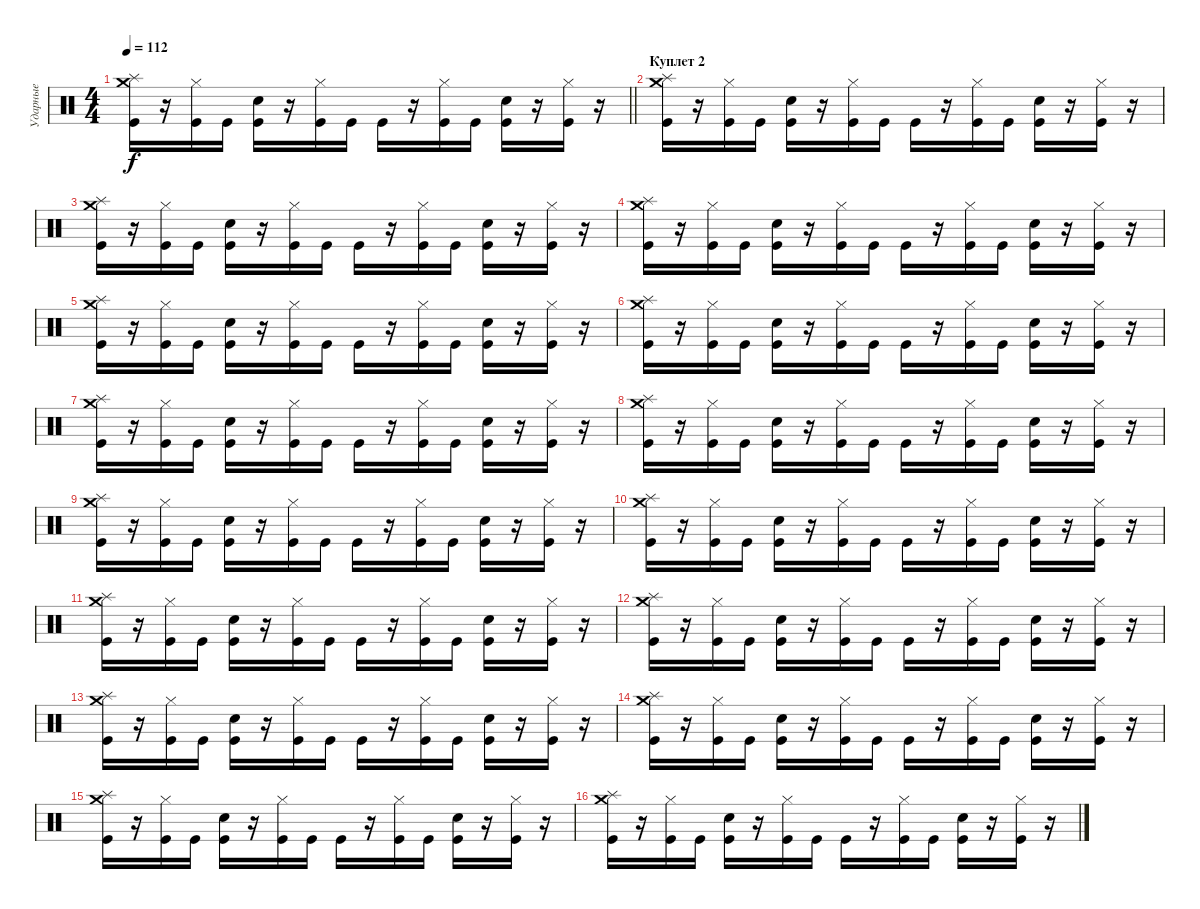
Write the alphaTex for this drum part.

\track ("Ударные" "Ударные") {instrument percussion}
\staff {score}
\articulation defaults
\ts (4 4)
\tempo 112
\clef neutral
\barLineRight lightlight
\ks c
("Splash (hit)" "Crash medium (hit)" "Kick (hit)").16{dy f} r.16 ("Hi-Hat (closed)" "Kick (hit)").16 "Kick (hit)".16 ("Snare (hit) 2" "Kick (hit)").16 r.16 ("Hi-Hat (closed)" "Kick (hit)").16 "Kick (hit)".16 "Kick (hit)".16 r.16 ("Hi-Hat (closed)" "Kick (hit)").16 "Kick (hit)".16 ("Snare (hit) 2" "Kick (hit)").16 r.16 ("Hi-Hat (closed)" "Kick (hit)").16 r.16 |
\section ("" "Куплет 2")
("Splash (hit)" "Crash medium (hit)" "Kick (hit)").16 r.16 ("Hi-Hat (closed)" "Kick (hit)").16 "Kick (hit)".16 ("Snare (hit) 2" "Kick (hit)").16 r.16 ("Hi-Hat (closed)" "Kick (hit)").16 "Kick (hit)".16 "Kick (hit)".16 r.16 ("Hi-Hat (closed)" "Kick (hit)").16 "Kick (hit)".16 ("Snare (hit) 2" "Kick (hit)").16 r.16 ("Hi-Hat (closed)" "Kick (hit)").16 r.16 |
("Splash (hit)" "Crash medium (hit)" "Kick (hit)").16 r.16 ("Hi-Hat (closed)" "Kick (hit)").16 "Kick (hit)".16 ("Snare (hit) 2" "Kick (hit)").16 r.16 ("Hi-Hat (closed)" "Kick (hit)").16 "Kick (hit)".16 "Kick (hit)".16 r.16 ("Hi-Hat (closed)" "Kick (hit)").16 "Kick (hit)".16 ("Snare (hit) 2" "Kick (hit)").16 r.16 ("Hi-Hat (closed)" "Kick (hit)").16 r.16 |
("Splash (hit)" "Crash medium (hit)" "Kick (hit)").16 r.16 ("Hi-Hat (closed)" "Kick (hit)").16 "Kick (hit)".16 ("Snare (hit) 2" "Kick (hit)").16 r.16 ("Hi-Hat (closed)" "Kick (hit)").16 "Kick (hit)".16 "Kick (hit)".16 r.16 ("Hi-Hat (closed)" "Kick (hit)").16 "Kick (hit)".16 ("Snare (hit) 2" "Kick (hit)").16 r.16 ("Hi-Hat (closed)" "Kick (hit)").16 r.16 |
("Splash (hit)" "Crash medium (hit)" "Kick (hit)").16 r.16 ("Hi-Hat (closed)" "Kick (hit)").16 "Kick (hit)".16 ("Snare (hit) 2" "Kick (hit)").16 r.16 ("Hi-Hat (closed)" "Kick (hit)").16 "Kick (hit)".16 "Kick (hit)".16 r.16 ("Hi-Hat (closed)" "Kick (hit)").16 "Kick (hit)".16 ("Snare (hit) 2" "Kick (hit)").16 r.16 ("Hi-Hat (closed)" "Kick (hit)").16 r.16 |
("Splash (hit)" "Crash medium (hit)" "Kick (hit)").16 r.16 ("Hi-Hat (closed)" "Kick (hit)").16 "Kick (hit)".16 ("Snare (hit) 2" "Kick (hit)").16 r.16 ("Hi-Hat (closed)" "Kick (hit)").16 "Kick (hit)".16 "Kick (hit)".16 r.16 ("Hi-Hat (closed)" "Kick (hit)").16 "Kick (hit)".16 ("Snare (hit) 2" "Kick (hit)").16 r.16 ("Hi-Hat (closed)" "Kick (hit)").16 r.16 |
("Splash (hit)" "Crash medium (hit)" "Kick (hit)").16 r.16 ("Hi-Hat (closed)" "Kick (hit)").16 "Kick (hit)".16 ("Snare (hit) 2" "Kick (hit)").16 r.16 ("Hi-Hat (closed)" "Kick (hit)").16 "Kick (hit)".16 "Kick (hit)".16 r.16 ("Hi-Hat (closed)" "Kick (hit)").16 "Kick (hit)".16 ("Snare (hit) 2" "Kick (hit)").16 r.16 ("Hi-Hat (closed)" "Kick (hit)").16 r.16 |
("Splash (hit)" "Crash medium (hit)" "Kick (hit)").16 r.16 ("Hi-Hat (closed)" "Kick (hit)").16 "Kick (hit)".16 ("Snare (hit) 2" "Kick (hit)").16 r.16 ("Hi-Hat (closed)" "Kick (hit)").16 "Kick (hit)".16 "Kick (hit)".16 r.16 ("Hi-Hat (closed)" "Kick (hit)").16 "Kick (hit)".16 ("Snare (hit) 2" "Kick (hit)").16 r.16 ("Hi-Hat (closed)" "Kick (hit)").16 r.16 |
("Splash (hit)" "Crash medium (hit)" "Kick (hit)").16 r.16 ("Hi-Hat (closed)" "Kick (hit)").16 "Kick (hit)".16 ("Snare (hit) 2" "Kick (hit)").16 r.16 ("Hi-Hat (closed)" "Kick (hit)").16 "Kick (hit)".16 "Kick (hit)".16 r.16 ("Hi-Hat (closed)" "Kick (hit)").16 "Kick (hit)".16 ("Snare (hit) 2" "Kick (hit)").16 r.16 ("Hi-Hat (closed)" "Kick (hit)").16 r.16 |
("Splash (hit)" "Crash medium (hit)" "Kick (hit)").16 r.16 ("Hi-Hat (closed)" "Kick (hit)").16 "Kick (hit)".16 ("Snare (hit) 2" "Kick (hit)").16 r.16 ("Hi-Hat (closed)" "Kick (hit)").16 "Kick (hit)".16 "Kick (hit)".16 r.16 ("Hi-Hat (closed)" "Kick (hit)").16 "Kick (hit)".16 ("Snare (hit) 2" "Kick (hit)").16 r.16 ("Hi-Hat (closed)" "Kick (hit)").16 r.16 |
("Splash (hit)" "Crash medium (hit)" "Kick (hit)").16 r.16 ("Hi-Hat (closed)" "Kick (hit)").16 "Kick (hit)".16 ("Snare (hit) 2" "Kick (hit)").16 r.16 ("Hi-Hat (closed)" "Kick (hit)").16 "Kick (hit)".16 "Kick (hit)".16 r.16 ("Hi-Hat (closed)" "Kick (hit)").16 "Kick (hit)".16 ("Snare (hit) 2" "Kick (hit)").16 r.16 ("Hi-Hat (closed)" "Kick (hit)").16 r.16 |
("Splash (hit)" "Crash medium (hit)" "Kick (hit)").16 r.16 ("Hi-Hat (closed)" "Kick (hit)").16 "Kick (hit)".16 ("Snare (hit) 2" "Kick (hit)").16 r.16 ("Hi-Hat (closed)" "Kick (hit)").16 "Kick (hit)".16 "Kick (hit)".16 r.16 ("Hi-Hat (closed)" "Kick (hit)").16 "Kick (hit)".16 ("Snare (hit) 2" "Kick (hit)").16 r.16 ("Hi-Hat (closed)" "Kick (hit)").16 r.16 |
("Splash (hit)" "Crash medium (hit)" "Kick (hit)").16 r.16 ("Hi-Hat (closed)" "Kick (hit)").16 "Kick (hit)".16 ("Snare (hit) 2" "Kick (hit)").16 r.16 ("Hi-Hat (closed)" "Kick (hit)").16 "Kick (hit)".16 "Kick (hit)".16 r.16 ("Hi-Hat (closed)" "Kick (hit)").16 "Kick (hit)".16 ("Snare (hit) 2" "Kick (hit)").16 r.16 ("Hi-Hat (closed)" "Kick (hit)").16 r.16 |
("Splash (hit)" "Crash medium (hit)" "Kick (hit)").16 r.16 ("Hi-Hat (closed)" "Kick (hit)").16 "Kick (hit)".16 ("Snare (hit) 2" "Kick (hit)").16 r.16 ("Hi-Hat (closed)" "Kick (hit)").16 "Kick (hit)".16 "Kick (hit)".16 r.16 ("Hi-Hat (closed)" "Kick (hit)").16 "Kick (hit)".16 ("Snare (hit) 2" "Kick (hit)").16 r.16 ("Hi-Hat (closed)" "Kick (hit)").16 r.16 |
("Splash (hit)" "Crash medium (hit)" "Kick (hit)").16 r.16 ("Hi-Hat (closed)" "Kick (hit)").16 "Kick (hit)".16 ("Snare (hit) 2" "Kick (hit)").16 r.16 ("Hi-Hat (closed)" "Kick (hit)").16 "Kick (hit)".16 "Kick (hit)".16 r.16 ("Hi-Hat (closed)" "Kick (hit)").16 "Kick (hit)".16 ("Snare (hit) 2" "Kick (hit)").16 r.16 ("Hi-Hat (closed)" "Kick (hit)").16 r.16 |
("Splash (hit)" "Crash medium (hit)" "Kick (hit)").16 r.16 ("Hi-Hat (closed)" "Kick (hit)").16 "Kick (hit)".16 ("Snare (hit) 2" "Kick (hit)").16 r.16 ("Hi-Hat (closed)" "Kick (hit)").16 "Kick (hit)".16 "Kick (hit)".16 r.16 ("Hi-Hat (closed)" "Kick (hit)").16 "Kick (hit)".16 ("Snare (hit) 2" "Kick (hit)").16 r.16 ("Hi-Hat (closed)" "Kick (hit)").16 r.16
